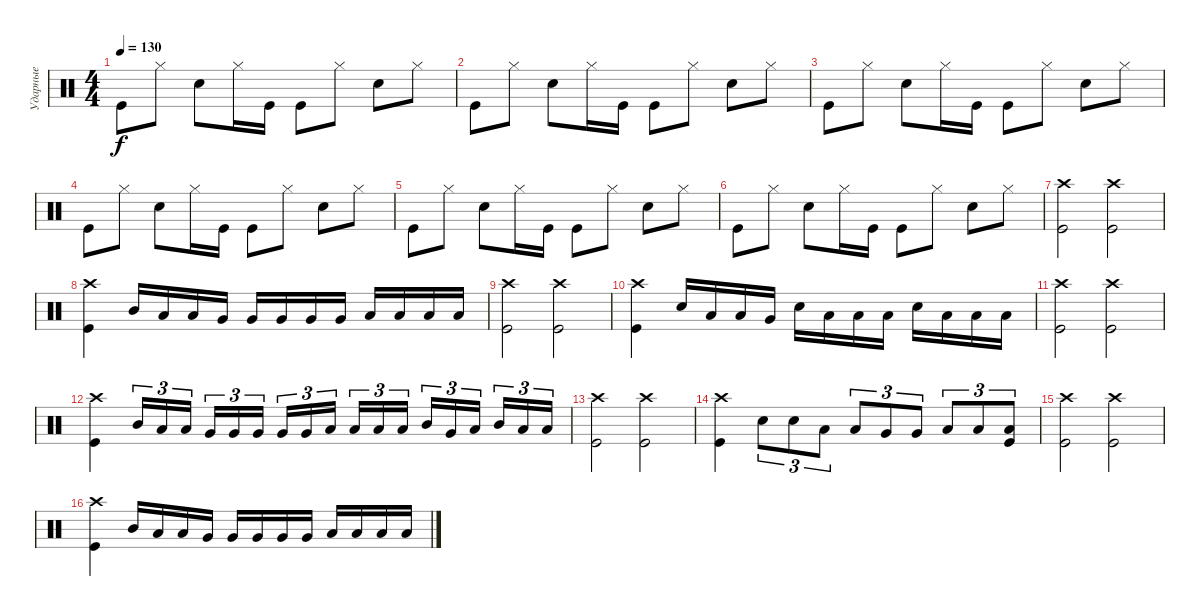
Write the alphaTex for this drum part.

\track ("Ударные" "Ударные") {instrument percussion}
\staff {score}
\articulation defaults
\ts (4 4)
\tempo 130
\clef neutral
\ks c "Kick (hit)".8{dy f} "Hi-Hat (closed)".8 "Electric Snare (hit)".8 "Hi-Hat (closed)".16 "Kick (hit)".16 "Kick (hit)".8 "Hi-Hat (closed)".8 "Electric Snare (hit)".8 "Hi-Hat (closed)".8
|
"Kick (hit)".8 "Hi-Hat (closed)".8 "Electric Snare (hit)".8 "Hi-Hat (closed)".16 "Kick (hit)".16 "Kick (hit)".8 "Hi-Hat (closed)".8 "Electric Snare (hit)".8 "Hi-Hat (closed)".8 |
"Kick (hit)".8 "Hi-Hat (closed)".8 "Electric Snare (hit)".8 "Hi-Hat (closed)".16 "Kick (hit)".16 "Kick (hit)".8 "Hi-Hat (closed)".8 "Electric Snare (hit)".8 "Hi-Hat (closed)".8 |
"Kick (hit)".8 "Hi-Hat (closed)".8 "Electric Snare (hit)".8 "Hi-Hat (closed)".16 "Kick (hit)".16 "Kick (hit)".8 "Hi-Hat (closed)".8 "Electric Snare (hit)".8 "Hi-Hat (closed)".8 |
"Kick (hit)".8 "Hi-Hat (closed)".8 "Electric Snare (hit)".8 "Hi-Hat (closed)".16 "Kick (hit)".16 "Kick (hit)".8 "Hi-Hat (closed)".8 "Electric Snare (hit)".8 "Hi-Hat (closed)".8 |
"Kick (hit)".8 "Hi-Hat (closed)".8 "Electric Snare (hit)".8 "Hi-Hat (closed)".16 "Kick (hit)".16 "Kick (hit)".8 "Hi-Hat (closed)".8 "Electric Snare (hit)".8 "Hi-Hat (closed)".8 |
("Crash high (hit)" "Kick (hit)").2 ("Crash high (hit)" "Kick (hit)").2 |
("Crash high (hit)" "Kick (hit)").4 "Mid Tom (hit)".16 "Low Tom (hit)".16 "Low Tom (hit)".16 "Very Low Tom (hit)".16 "Very Low Tom (hit)".16 "Very Low Tom (hit)".16 "Very Low Tom (hit)".16 "Very Low Tom (hit)".16 "Low Floor Tom (hit)".16 "Low Floor Tom (hit)".16 "Low Floor Tom (hit)".16 "Low Floor Tom (hit)".16 |
("Crash high (hit)" "Kick (hit)").2 ("Crash high (hit)" "Kick (hit)").2 |
("Crash high (hit)" "Kick (hit)").4 "Electric Snare (hit)".16 "Low Tom (hit)".16 "Low Tom (hit)".16 "Very Low Tom (hit)".16 "Electric Snare (hit)".16 "Low Tom (hit)".16 "Low Tom (hit)".16 "Low Tom (hit)".16 "Electric Snare (hit)".16 "Low Tom (hit)".16 "Low Tom (hit)".16 "Low Floor Tom (hit)".16 |
("Crash high (hit)" "Kick (hit)").2 ("Crash high (hit)" "Kick (hit)").2 |
("Crash high (hit)" "Kick (hit)").4 "Mid Tom (hit)".16{tu (3 2)} "Low Tom (hit)".16{tu (3 2)} "Low Tom (hit)".16{tu (3 2) beam splitsecondary} "Very Low Tom (hit)".16{tu (3 2)} "Very Low Tom (hit)".16{tu (3 2)} "Very Low Tom (hit)".16{tu (3 2)} "Very Low Tom (hit)".16{tu (3 2)} "Very Low Tom (hit)".16{tu (3 2)} "Low Floor Tom (hit)".16{tu (3 2) beam splitsecondary} "Low Floor Tom (hit)".16{tu (3 2)} "Low Floor Tom (hit)".16{tu (3 2)} "Low Floor Tom (hit)".16{tu (3 2)} "Mid Tom (hit)".16{tu (3 2)} "Very Low Tom (hit)".16{tu (3 2)} "Low Tom (hit)".16{tu (3 2) beam splitsecondary} "Mid Tom (hit)".16{tu (3 2)} "Low Tom (hit)".16{tu (3 2)} "Low Tom (hit)".16{tu (3 2)} |
("Crash high (hit)" "Kick (hit)").2 ("Crash high (hit)" "Kick (hit)").2 |
("Crash high (hit)" "Kick (hit)").4 "Electric Snare (hit)".8{tu (3 2)} "Electric Snare (hit)".8{tu (3 2)} "Low Tom (hit)".8{tu (3 2)} "Low Tom (hit)".8{tu (3 2)} "Very Low Tom (hit)".8{tu (3 2)} "Very Low Tom (hit)".8{tu (3 2)} "Low Floor Tom (hit)".8{tu (3 2)} "Low Floor Tom (hit)".8{tu (3 2)} ("Low Floor Tom (hit)" "Kick (hit)").8{tu (3 2)} |
("Crash high (hit)" "Kick (hit)").2 ("Crash high (hit)" "Kick (hit)").2 |
("Crash high (hit)" "Kick (hit)").4 "Mid Tom (hit)".16 "Low Tom (hit)".16 "Low Tom (hit)".16 "Very Low Tom (hit)".16 "Very Low Tom (hit)".16 "Very Low Tom (hit)".16 "Very Low Tom (hit)".16 "Very Low Tom (hit)".16 "Low Floor Tom (hit)".16 "Low Floor Tom (hit)".16 "Low Floor Tom (hit)".16 "Low Floor Tom (hit)".16
